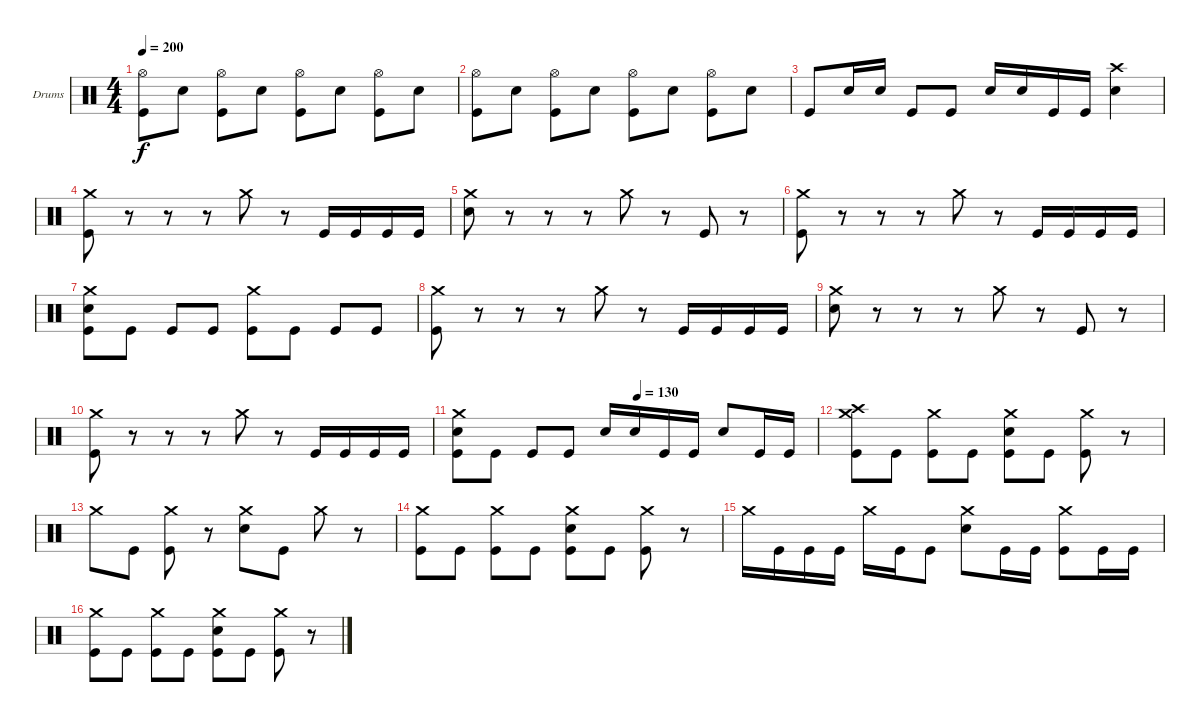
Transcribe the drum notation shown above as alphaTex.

\bracketExtendMode groupsimilarinstruments
\firstSystemTrackNameOrientation horizontal
\otherSystemsTrackNameOrientation horizontal
\track ("Boum Boum" "Drums") {instrument percussion}
\staff {score}
\articulation defaults
\ts (4 4)
\tempo 200
\clef neutral
\ks c
("Kick (hit)" "Hi-Hat (open)").8{dy f} "Snare (hit) 2".8 ("Kick (hit)" "Hi-Hat (open)").8 "Snare (hit) 2".8 ("Kick (hit)" "Hi-Hat (open)").8 "Snare (hit) 2".8 ("Kick (hit)" "Hi-Hat (open)").8 "Snare (hit) 2".8 |
("Kick (hit)" "Hi-Hat (open)").8 "Snare (hit) 2".8 ("Kick (hit)" "Hi-Hat (open)").8 "Snare (hit) 2".8 ("Kick (hit)" "Hi-Hat (open)").8 "Snare (hit) 2".8 ("Kick (hit)" "Hi-Hat (open)").8 "Snare (hit) 2".8 |
"Kick (hit)".8 "Snare (hit) 2".16 "Snare (hit) 2".16 "Kick (hit)".8 "Kick (hit)".8 "Snare (hit) 2".16 "Snare (hit) 2".16 "Kick (hit)".16 "Kick (hit)".16 ("Snare (hit) 2" "Crash high (hit)").4 |
("Kick (hit)" "Crash medium (hit)").8 r.8 r.8 r.8 "Crash medium (hit)".8 r.8 "Kick (hit)".16 "Kick (hit)".16 "Kick (hit)".16 "Kick (hit)".16 |
("Snare (hit) 2" "Crash medium (hit)").8 r.8 r.8 r.8 "Crash medium (hit)".8 r.8 "Kick (hit)".8 r.8 |
("Kick (hit)" "Crash medium (hit)").8 r.8 r.8 r.8 "Crash medium (hit)".8 r.8 "Kick (hit)".16 "Kick (hit)".16 "Kick (hit)".16 "Kick (hit)".16 |
("Kick (hit)" "Snare (hit) 2" "Crash medium (hit)").8 "Kick (hit)".8 "Kick (hit)".8 "Kick (hit)".8 ("Crash medium (hit)" "Kick (hit)").8 "Kick (hit)".8 "Kick (hit)".8 "Kick (hit)".8 |
("Kick (hit)" "Crash medium (hit)").8 r.8 r.8 r.8 "Crash medium (hit)".8 r.8 "Kick (hit)".16 "Kick (hit)".16 "Kick (hit)".16 "Kick (hit)".16 |
("Snare (hit) 2" "Crash medium (hit)").8 r.8 r.8 r.8 "Crash medium (hit)".8 r.8 "Kick (hit)".8 r.8 |
("Kick (hit)" "Crash medium (hit)").8 r.8 r.8 r.8 "Crash medium (hit)".8 r.8 "Kick (hit)".16 "Kick (hit)".16 "Kick (hit)".16 "Kick (hit)".16 |
\tempo (130 0.5)
("Snare (hit) 2" "Crash medium (hit)" "Kick (hit)").8 "Kick (hit)".8 "Kick (hit)".8 "Kick (hit)".8 "Snare (hit) 2".16 "Snare (hit) 2".16 "Kick (hit)".16 "Kick (hit)".16 "Snare (hit) 2".8 "Kick (hit)".16 "Kick (hit)".16 |
("Kick (hit)" "Crash medium (hit)" "Crash high (hit)").8 "Kick (hit)".8 ("Kick (hit)" "Crash medium (hit)").8 "Kick (hit)".8 ("Kick (hit)" "Crash medium (hit)" "Snare (hit) 2").8 "Kick (hit)".8 ("Kick (hit)" "Crash medium (hit)").8 r.8 |
"Crash medium (hit)".8 "Kick (hit)".8 ("Crash medium (hit)" "Kick (hit)").8 r.8 ("Crash medium (hit)" "Snare (hit) 2").8 "Kick (hit)".8 "Crash medium (hit)".8 r.8 |
("Kick (hit)" "Crash medium (hit)").8 "Kick (hit)".8 ("Kick (hit)" "Crash medium (hit)").8 "Kick (hit)".8 ("Kick (hit)" "Snare (hit) 2" "Crash medium (hit)").8 "Kick (hit)".8 ("Kick (hit)" "Crash medium (hit)").8 r.8 |
"Crash medium (hit)".16 "Kick (hit)".16 "Kick (hit)".16 "Kick (hit)".16 "Crash medium (hit)".16 "Kick (hit)".16 "Kick (hit)".8 ("Snare (hit) 2" "Crash medium (hit)").8 "Kick (hit)".16 "Kick (hit)".16 ("Kick (hit)" "Crash medium (hit)").8 "Kick (hit)".16 "Kick (hit)".16 |
("Kick (hit)" "Crash medium (hit)").8 "Kick (hit)".8 ("Kick (hit)" "Crash medium (hit)").8 "Kick (hit)".8 ("Kick (hit)" "Crash medium (hit)" "Snare (hit) 2").8 "Kick (hit)".8 ("Kick (hit)" "Crash medium (hit)").8 r.8
